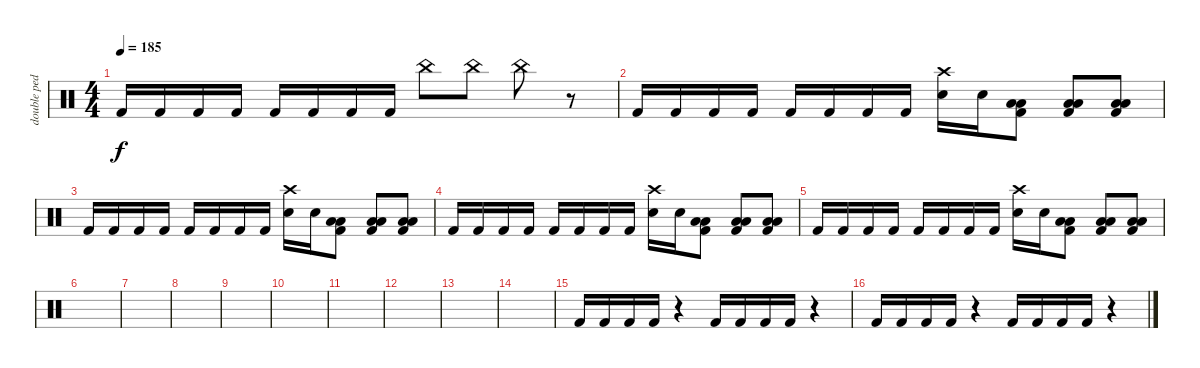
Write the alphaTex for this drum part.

\track ("double pedale" "double ped") {instrument percussion}
\staff {score}
\articulation defaults
\ts (4 4)
\tempo 185
\clef neutral
\ks c "Kick (hit) 2".16{dy f} "Kick (hit) 2".16 "Kick (hit) 2".16 "Kick (hit) 2".16 "Kick (hit) 2".16 "Kick (hit) 2".16 "Kick (hit) 2".16 "Kick (hit) 2".16 "China (hit)".8 "China (hit)".8 "China (hit)".8
r.8 |
"Kick (hit) 2".16 "Kick (hit) 2".16 "Kick (hit) 2".16 "Kick (hit) 2".16 "Kick (hit) 2".16 "Kick (hit) 2".16 "Kick (hit) 2".16 "Kick (hit) 2".16 ("Crash high (hit)" "Snare (hit) 2").16 "Electric Snare (hit)".16 ("Kick (hit) 2" "Low Tom (hit)" "Low Floor Tom (hit)").8 ("Kick (hit) 2" "Low Tom (hit)" "Low Floor Tom (hit)").8 ("Kick (hit) 2" "Low Tom (hit)" "Low Floor Tom (hit)").8 |
"Kick (hit) 2".16 "Kick (hit) 2".16 "Kick (hit) 2".16 "Kick (hit) 2".16 "Kick (hit) 2".16 "Kick (hit) 2".16 "Kick (hit) 2".16 "Kick (hit) 2".16 ("Crash high (hit)" "Snare (hit) 2").16 "Electric Snare (hit)".16 ("Kick (hit) 2" "Low Tom (hit)" "Low Floor Tom (hit)").8 ("Kick (hit) 2" "Low Tom (hit)" "Low Floor Tom (hit)").8 ("Kick (hit) 2" "Low Tom (hit)" "Low Floor Tom (hit)").8 |
"Kick (hit) 2".16 "Kick (hit) 2".16 "Kick (hit) 2".16 "Kick (hit) 2".16 "Kick (hit) 2".16 "Kick (hit) 2".16 "Kick (hit) 2".16 "Kick (hit) 2".16 ("Crash high (hit)" "Snare (hit) 2").16 "Electric Snare (hit)".16 ("Kick (hit) 2" "Low Tom (hit)" "Low Floor Tom (hit)").8 ("Kick (hit) 2" "Low Tom (hit)" "Low Floor Tom (hit)").8 ("Kick (hit) 2" "Low Tom (hit)" "Low Floor Tom (hit)").8 |
"Kick (hit) 2".16 "Kick (hit) 2".16 "Kick (hit) 2".16 "Kick (hit) 2".16 "Kick (hit) 2".16 "Kick (hit) 2".16 "Kick (hit) 2".16 "Kick (hit) 2".16 ("Crash high (hit)" "Snare (hit) 2").16 "Electric Snare (hit)".16 ("Kick (hit) 2" "Low Tom (hit)" "Low Floor Tom (hit)").8 ("Kick (hit) 2" "Low Tom (hit)" "Low Floor Tom (hit)").8 ("Kick (hit) 2" "Low Tom (hit)" "Low Floor Tom (hit)").8 |
|
|
|
|
|
|
|
|
|
"Kick (hit) 2".16 "Kick (hit) 2".16 "Kick (hit) 2".16 "Kick (hit) 2".16 r.4 "Kick (hit) 2".16 "Kick (hit) 2".16 "Kick (hit) 2".16 "Kick (hit) 2".16 r.4 |
"Kick (hit) 2".16 "Kick (hit) 2".16 "Kick (hit) 2".16 "Kick (hit) 2".16 r.4 "Kick (hit) 2".16 "Kick (hit) 2".16 "Kick (hit) 2".16 "Kick (hit) 2".16 r.4
